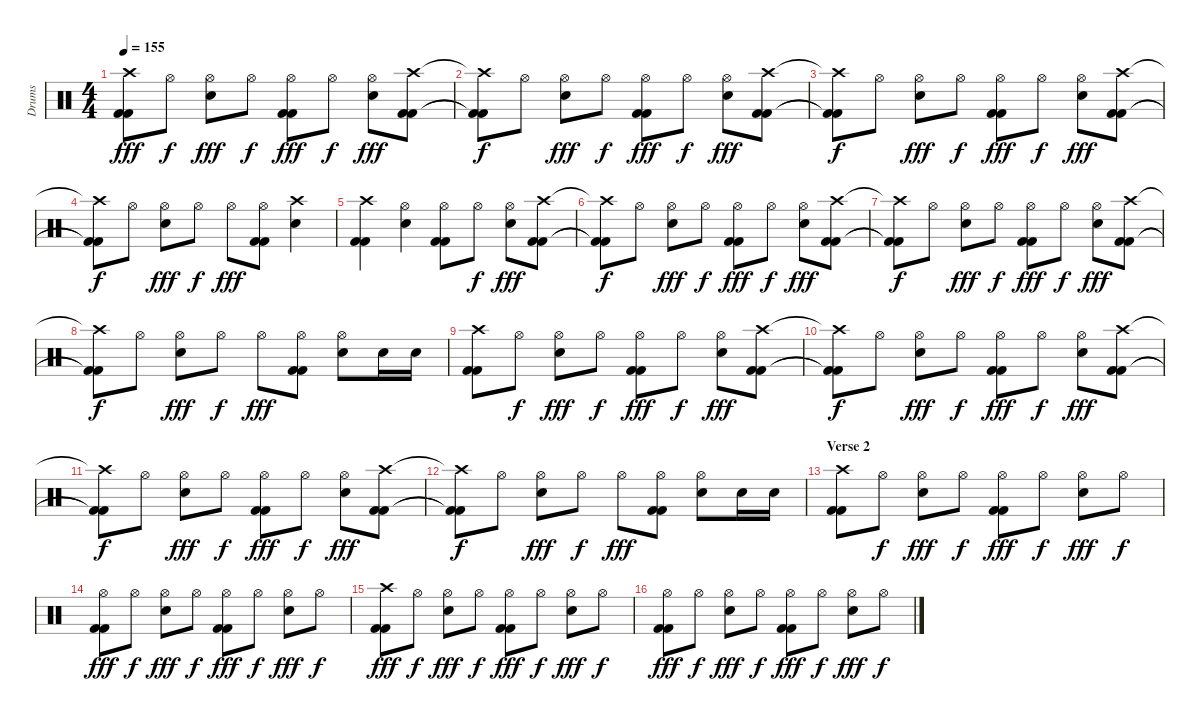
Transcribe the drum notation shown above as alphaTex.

\track ("Drums" "Drums") {instrument percussion}
\staff {score}
\articulation defaults
\ts (4 4)
\tempo 155
\clef neutral
\ks c
("Crash high (hit)" "Kick (hit) 2" "Kick (hit) 2").8{dy fff} "Hi-Hat (open)".8{dy f} ("Hi-Hat (open)" "Snare (hit) 2").8{dy fff} "Hi-Hat (open)".8{dy f} ("Hi-Hat (open)" "Kick (hit) 2" "Kick (hit) 2").8{dy fff} "Hi-Hat (open)".8{dy f} ("Hi-Hat (open)" "Snare (hit) 2").8{dy fff} ("Crash high (hit)" "Kick (hit) 2" "Kick (hit) 2").8 |
("Crash high (hit)"{t} "Kick (hit) 2"{t} "Kick (hit) 2"{t}).8{dy f} "Hi-Hat (open)".8 ("Hi-Hat (open)" "Snare (hit) 2").8{dy fff} "Hi-Hat (open)".8{dy f} ("Hi-Hat (open)" "Kick (hit) 2" "Kick (hit) 2").8{dy fff} "Hi-Hat (open)".8{dy f} ("Hi-Hat (open)" "Snare (hit) 2").8{dy fff} ("Crash high (hit)" "Kick (hit) 2" "Kick (hit) 2").8 |
("Crash high (hit)"{t} "Kick (hit) 2"{t} "Kick (hit) 2"{t}).8{dy f} "Hi-Hat (open)".8 ("Hi-Hat (open)" "Snare (hit) 2").8{dy fff} "Hi-Hat (open)".8{dy f} ("Hi-Hat (open)" "Kick (hit) 2" "Kick (hit) 2").8{dy fff} "Hi-Hat (open)".8{dy f} ("Hi-Hat (open)" "Snare (hit) 2").8{dy fff} ("Crash high (hit)" "Kick (hit) 2" "Kick (hit) 2").8 |
("Crash high (hit)"{t} "Kick (hit) 2"{t} "Kick (hit) 2"{t}).8{dy f} "Hi-Hat (open)".8 ("Hi-Hat (open)" "Snare (hit) 2").8{dy fff} "Hi-Hat (open)".8{dy f} "Hi-Hat (open)".8{dy fff} ("Hi-Hat (open)" "Kick (hit) 2" "Kick (hit) 2").8 ("Crash high (hit)" "Snare (hit) 2").4 |
("Crash high (hit)" "Kick (hit) 2" "Kick (hit) 2").4 ("Hi-Hat (open)" "Snare (hit) 2").4 ("Hi-Hat (open)" "Kick (hit) 2" "Kick (hit) 2").8 "Hi-Hat (open)".8{dy f} ("Hi-Hat (open)" "Snare (hit) 2").8{dy fff} ("Crash high (hit)" "Kick (hit) 2" "Kick (hit) 2").8 |
("Crash high (hit)"{t} "Kick (hit) 2"{t} "Kick (hit) 2"{t}).8{dy f} "Hi-Hat (open)".8 ("Hi-Hat (open)" "Snare (hit) 2").8{dy fff} "Hi-Hat (open)".8{dy f} ("Hi-Hat (open)" "Kick (hit) 2" "Kick (hit) 2").8{dy fff} "Hi-Hat (open)".8{dy f} ("Hi-Hat (open)" "Snare (hit) 2").8{dy fff} ("Crash high (hit)" "Kick (hit) 2" "Kick (hit) 2").8 |
("Crash high (hit)"{t} "Kick (hit) 2"{t} "Kick (hit) 2"{t}).8{dy f} "Hi-Hat (open)".8 ("Hi-Hat (open)" "Snare (hit) 2").8{dy fff} "Hi-Hat (open)".8{dy f} ("Hi-Hat (open)" "Kick (hit) 2" "Kick (hit) 2").8{dy fff} "Hi-Hat (open)".8{dy f} ("Hi-Hat (open)" "Snare (hit) 2").8{dy fff} ("Crash high (hit)" "Kick (hit) 2" "Kick (hit) 2").8 |
("Crash high (hit)"{t} "Kick (hit) 2"{t} "Kick (hit) 2"{t}).8{dy f} "Hi-Hat (open)".8 ("Hi-Hat (open)" "Snare (hit) 2").8{dy fff} "Hi-Hat (open)".8{dy f} "Hi-Hat (open)".8{dy fff} ("Hi-Hat (open)" "Kick (hit) 2" "Kick (hit) 2").8 ("Hi-Hat (open)" "Snare (hit) 2").8 "Snare (hit) 2".16 "Snare (hit) 2".16 |
("Crash high (hit)" "Kick (hit) 2" "Kick (hit) 2").8 "Hi-Hat (open)".8{dy f} ("Hi-Hat (open)" "Snare (hit) 2").8{dy fff} "Hi-Hat (open)".8{dy f} ("Hi-Hat (open)" "Kick (hit) 2" "Kick (hit) 2").8{dy fff} "Hi-Hat (open)".8{dy f} ("Hi-Hat (open)" "Snare (hit) 2").8{dy fff} ("Crash high (hit)" "Kick (hit) 2" "Kick (hit) 2").8 |
("Crash high (hit)"{t} "Kick (hit) 2"{t} "Kick (hit) 2"{t}).8{dy f} "Hi-Hat (open)".8 ("Hi-Hat (open)" "Snare (hit) 2").8{dy fff} "Hi-Hat (open)".8{dy f} ("Hi-Hat (open)" "Kick (hit) 2" "Kick (hit) 2").8{dy fff} "Hi-Hat (open)".8{dy f} ("Hi-Hat (open)" "Snare (hit) 2").8{dy fff} ("Crash high (hit)" "Kick (hit) 2" "Kick (hit) 2").8 |
("Crash high (hit)"{t} "Kick (hit) 2"{t} "Kick (hit) 2"{t}).8{dy f} "Hi-Hat (open)".8 ("Hi-Hat (open)" "Snare (hit) 2").8{dy fff} "Hi-Hat (open)".8{dy f} ("Hi-Hat (open)" "Kick (hit) 2" "Kick (hit) 2").8{dy fff} "Hi-Hat (open)".8{dy f} ("Hi-Hat (open)" "Snare (hit) 2").8{dy fff} ("Crash high (hit)" "Kick (hit) 2" "Kick (hit) 2").8 |
("Crash high (hit)"{t} "Kick (hit) 2"{t} "Kick (hit) 2"{t}).8{dy f} "Hi-Hat (open)".8 ("Hi-Hat (open)" "Snare (hit) 2").8{dy fff} "Hi-Hat (open)".8{dy f} "Hi-Hat (open)".8{dy fff} ("Hi-Hat (open)" "Kick (hit) 2" "Kick (hit) 2").8 ("Hi-Hat (open)" "Snare (hit) 2").8 "Snare (hit) 2".16 "Snare (hit) 2".16 |
\section ("" "Verse 2")
("Crash high (hit)" "Kick (hit) 2" "Kick (hit) 2").8 "Hi-Hat (open)".8{dy f} ("Hi-Hat (open)" "Snare (hit) 2").8{dy fff} "Hi-Hat (open)".8{dy f} ("Hi-Hat (open)" "Kick (hit) 2" "Kick (hit) 2").8{dy fff} "Hi-Hat (open)".8{dy f} ("Hi-Hat (open)" "Snare (hit) 2").8{dy fff} "Hi-Hat (open)".8{dy f} |
("Hi-Hat (open)" "Kick (hit) 2" "Kick (hit) 2").8{dy fff} "Hi-Hat (open)".8{dy f} ("Hi-Hat (open)" "Snare (hit) 2").8{dy fff} "Hi-Hat (open)".8{dy f} ("Hi-Hat (open)" "Kick (hit) 2" "Kick (hit) 2").8{dy fff} "Hi-Hat (open)".8{dy f} ("Hi-Hat (open)" "Snare (hit) 2").8{dy fff} "Hi-Hat (open)".8{dy f} |
("Crash high (hit)" "Kick (hit) 2" "Kick (hit) 2").8{dy fff} "Hi-Hat (open)".8{dy f} ("Hi-Hat (open)" "Snare (hit) 2").8{dy fff} "Hi-Hat (open)".8{dy f} ("Hi-Hat (open)" "Kick (hit) 2" "Kick (hit) 2").8{dy fff} "Hi-Hat (open)".8{dy f} ("Hi-Hat (open)" "Snare (hit) 2").8{dy fff} "Hi-Hat (open)".8{dy f} |
("Hi-Hat (open)" "Kick (hit) 2" "Kick (hit) 2").8{dy fff} "Hi-Hat (open)".8{dy f} ("Hi-Hat (open)" "Snare (hit) 2").8{dy fff} "Hi-Hat (open)".8{dy f} ("Hi-Hat (open)" "Kick (hit) 2" "Kick (hit) 2").8{dy fff} "Hi-Hat (open)".8{dy f} ("Hi-Hat (open)" "Snare (hit) 2").8{dy fff} "Hi-Hat (open)".8{dy f}
